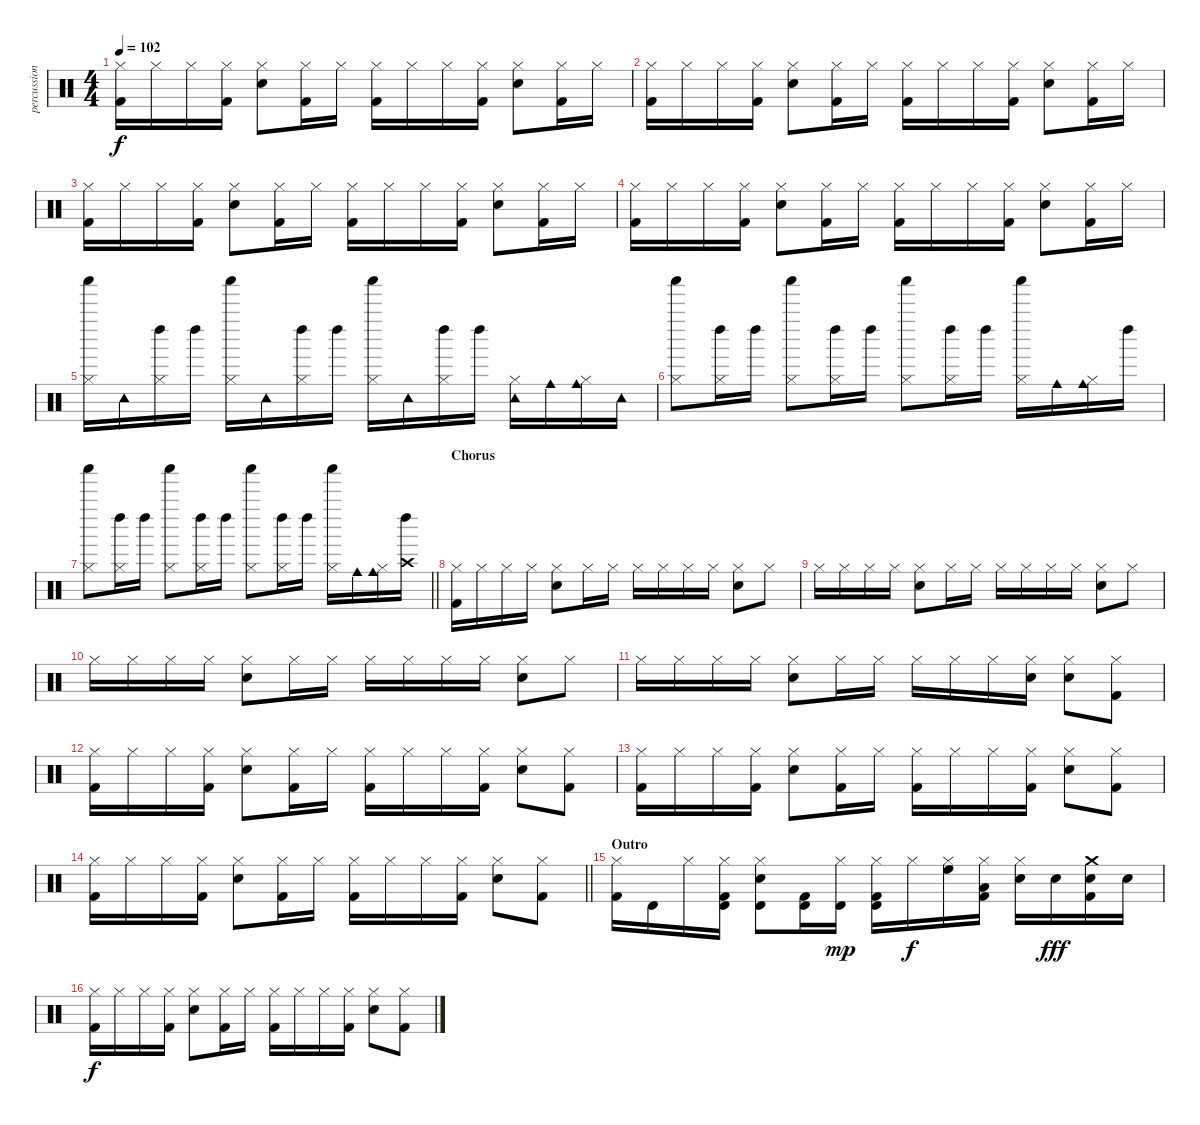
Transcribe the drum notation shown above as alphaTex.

\track ("percussion" "percussion") {instrument percussion}
\staff {score}
\articulation defaults
\ts (4 4)
\tempo 102
\clef neutral
\ks aminor
("Hi-Hat (closed)" "Kick (hit) 2").16{dy f} "Hi-Hat (closed)".16 "Hi-Hat (closed)".16 ("Hi-Hat (closed)" "Kick (hit) 2").16 ("Snare (hit) 2" "Hi-Hat (closed)").8 ("Hi-Hat (closed)" "Kick (hit) 2").16 "Hi-Hat (closed)".16 ("Hi-Hat (closed)" "Kick (hit) 2").16 "Hi-Hat (closed)".16 "Hi-Hat (closed)".16 ("Hi-Hat (closed)" "Kick (hit) 2").16 ("Snare (hit) 2" "Hi-Hat (closed)").8 ("Hi-Hat (closed)" "Kick (hit) 2").16 "Hi-Hat (closed)".16 |
("Hi-Hat (closed)" "Kick (hit) 2").16 "Hi-Hat (closed)".16 "Hi-Hat (closed)".16 ("Hi-Hat (closed)" "Kick (hit) 2").16 ("Snare (hit) 2" "Hi-Hat (closed)").8 ("Hi-Hat (closed)" "Kick (hit) 2").16 "Hi-Hat (closed)".16 ("Hi-Hat (closed)" "Kick (hit) 2").16 "Hi-Hat (closed)".16 "Hi-Hat (closed)".16 ("Hi-Hat (closed)" "Kick (hit) 2").16 ("Snare (hit) 2" "Hi-Hat (closed)").8 ("Hi-Hat (closed)" "Kick (hit) 2").16 "Hi-Hat (closed)".16 |
("Hi-Hat (closed)" "Kick (hit) 2").16 "Hi-Hat (closed)".16 "Hi-Hat (closed)".16 ("Hi-Hat (closed)" "Kick (hit) 2").16 ("Snare (hit) 2" "Hi-Hat (closed)").8 ("Hi-Hat (closed)" "Kick (hit) 2").16 "Hi-Hat (closed)".16 ("Hi-Hat (closed)" "Kick (hit) 2").16 "Hi-Hat (closed)".16 "Hi-Hat (closed)".16 ("Hi-Hat (closed)" "Kick (hit) 2").16 ("Snare (hit) 2" "Hi-Hat (closed)").8 ("Hi-Hat (closed)" "Kick (hit) 2").16 "Hi-Hat (closed)".16 |
("Hi-Hat (closed)" "Kick (hit) 2").16 "Hi-Hat (closed)".16 "Hi-Hat (closed)".16 ("Hi-Hat (closed)" "Kick (hit) 2").16 ("Snare (hit) 2" "Hi-Hat (closed)").8 ("Hi-Hat (closed)" "Kick (hit) 2").16 "Hi-Hat (closed)".16 ("Hi-Hat (closed)" "Kick (hit) 2").16 "Hi-Hat (closed)".16 "Hi-Hat (closed)".16 ("Hi-Hat (closed)" "Kick (hit) 2").16 ("Snare (hit) 2" "Hi-Hat (closed)").8 ("Hi-Hat (closed)" "Kick (hit) 2").16 "Hi-Hat (closed)".16 |
("Shaker (hit)" "Hi-Hat (closed)").16 "Tambourine (hit)".16 ("Left Maraca (hit)" "Hi-Hat (closed)").16 "Left Maraca (hit)".16 ("Shaker (hit)" "Hi-Hat (closed)").16 "Tambourine (hit)".16 ("Left Maraca (hit)" "Hi-Hat (closed)").16 "Left Maraca (hit)".16 ("Shaker (hit)" "Hi-Hat (closed)").16 "Tambourine (hit)".16 ("Left Maraca (hit)" "Hi-Hat (closed)").16 "Left Maraca (hit)".16 ("Tambourine (hit)" "Hi-Hat (closed)").16 "Cowbell medium (hit)".16 ("Cowbell medium (hit)" "Hi-Hat (closed)").16 "Tambourine (hit)".16 |
("Shaker (hit)" "Hi-Hat (closed)").8 ("Left Maraca (hit)" "Hi-Hat (closed)").16 "Left Maraca (hit)".16 ("Shaker (hit)" "Hi-Hat (closed)").8 ("Left Maraca (hit)" "Hi-Hat (closed)").16 "Left Maraca (hit)".16 ("Shaker (hit)" "Hi-Hat (closed)").8 ("Left Maraca (hit)" "Hi-Hat (closed)").16 "Left Maraca (hit)".16 ("Shaker (hit)" "Hi-Hat (closed)").16 "Cowbell medium (hit)".16 ("Cowbell medium (hit)" "Hi-Hat (closed)").16 "Left Maraca (hit)".16 |
\barLineRight lightlight
("Shaker (hit)" "Hi-Hat (closed)").8 ("Left Maraca (hit)" "Hi-Hat (closed)").16 "Left Maraca (hit)".16 ("Shaker (hit)" "Hi-Hat (closed)").8 ("Left Maraca (hit)" "Hi-Hat (closed)").16 "Left Maraca (hit)".16 ("Shaker (hit)" "Hi-Hat (closed)").8 ("Left Maraca (hit)" "Hi-Hat (closed)").16 "Left Maraca (hit)".16 ("Shaker (hit)" "Hi-Hat (closed)").16 "Cowbell medium (hit)".16 ("Cowbell medium (hit)" "Hi-Hat (closed)").16 ("Crash high (hit)" "Left Maraca (hit)").16 |
\section ("" "Chorus")
("Hi-Hat (closed)" "Kick (hit) 2").16 "Hi-Hat (closed)".16 "Hi-Hat (closed)".16 "Hi-Hat (closed)".16 ("Snare (hit) 2" "Hi-Hat (closed)").8 "Hi-Hat (closed)".16 "Hi-Hat (closed)".16 "Hi-Hat (closed)".16 "Hi-Hat (closed)".16 "Hi-Hat (closed)".16 "Hi-Hat (closed)".16 ("Snare (hit) 2" "Hi-Hat (closed)").8 "Hi-Hat (closed)".8 |
"Hi-Hat (closed)".16 "Hi-Hat (closed)".16 "Hi-Hat (closed)".16 "Hi-Hat (closed)".16 ("Snare (hit) 2" "Hi-Hat (closed)").8 "Hi-Hat (closed)".16 "Hi-Hat (closed)".16 "Hi-Hat (closed)".16 "Hi-Hat (closed)".16 "Hi-Hat (closed)".16 "Hi-Hat (closed)".16 ("Snare (hit) 2" "Hi-Hat (closed)").8 "Hi-Hat (closed)".8 |
"Hi-Hat (closed)".16 "Hi-Hat (closed)".16 "Hi-Hat (closed)".16 "Hi-Hat (closed)".16 ("Snare (hit) 2" "Hi-Hat (closed)").8 "Hi-Hat (closed)".16 "Hi-Hat (closed)".16 "Hi-Hat (closed)".16 "Hi-Hat (closed)".16 "Hi-Hat (closed)".16 "Hi-Hat (closed)".16 ("Snare (hit) 2" "Hi-Hat (closed)").8 "Hi-Hat (closed)".8 |
"Hi-Hat (closed)".16 "Hi-Hat (closed)".16 "Hi-Hat (closed)".16 "Hi-Hat (closed)".16 ("Snare (hit) 2" "Hi-Hat (closed)").8 "Hi-Hat (closed)".16 "Hi-Hat (closed)".16 "Hi-Hat (closed)".16 "Hi-Hat (closed)".16 "Hi-Hat (closed)".16 ("Snare (hit) 2" "Hi-Hat (closed)").16 ("Snare (hit) 2" "Hi-Hat (closed)").8 ("Hi-Hat (closed)" "Kick (hit) 2").8 |
("Hi-Hat (closed)" "Kick (hit) 2").16 "Hi-Hat (closed)".16 "Hi-Hat (closed)".16 ("Hi-Hat (closed)" "Kick (hit) 2").16 ("Snare (hit) 2" "Hi-Hat (closed)").8 ("Hi-Hat (closed)" "Kick (hit) 2").16 "Hi-Hat (closed)".16 ("Hi-Hat (closed)" "Kick (hit) 2").16 "Hi-Hat (closed)".16 "Hi-Hat (closed)".16 ("Hi-Hat (closed)" "Kick (hit) 2").16 ("Snare (hit) 2" "Hi-Hat (closed)").8 ("Hi-Hat (closed)" "Kick (hit) 2").8 |
("Hi-Hat (closed)" "Kick (hit) 2").16 "Hi-Hat (closed)".16 "Hi-Hat (closed)".16 ("Hi-Hat (closed)" "Kick (hit) 2").16 ("Snare (hit) 2" "Hi-Hat (closed)").8 ("Hi-Hat (closed)" "Kick (hit) 2").16 "Hi-Hat (closed)".16 ("Hi-Hat (closed)" "Kick (hit) 2").16 "Hi-Hat (closed)".16 "Hi-Hat (closed)".16 ("Hi-Hat (closed)" "Kick (hit) 2").16 ("Snare (hit) 2" "Hi-Hat (closed)").8 ("Hi-Hat (closed)" "Kick (hit) 2").8 |
\barLineRight lightlight
("Hi-Hat (closed)" "Kick (hit) 2").16 "Hi-Hat (closed)".16 "Hi-Hat (closed)".16 ("Hi-Hat (closed)" "Kick (hit) 2").16 ("Snare (hit) 2" "Hi-Hat (closed)").8 ("Hi-Hat (closed)" "Kick (hit) 2").16 "Hi-Hat (closed)".16 ("Hi-Hat (closed)" "Kick (hit) 2").16 "Hi-Hat (closed)".16 "Hi-Hat (closed)".16 ("Hi-Hat (closed)" "Kick (hit) 2").16 ("Snare (hit) 2" "Hi-Hat (closed)").8 ("Hi-Hat (closed)" "Kick (hit) 2").8 |
\section ("" "Outro")
("Hi-Hat (closed)" "Kick (hit) 2").16 "Timbale high (hit)".16 "Hi-Hat (closed)".16 ("Timbale high (hit)" "Hi-Hat (closed)" "Kick (hit) 2").16 ("Timbale high (hit)" "Snare (hit) 2" "Hi-Hat (closed)").8 ("Timbale high (hit)" "Kick (hit) 2").16 ("Timbale high (hit)" "Hi-Hat (closed)").16{dy mp} ("Timbale high (hit)" "Hi-Hat (closed)" "Kick (hit) 2").16 "Hi-Hat (closed)".16{dy f} ("High Floor Tom (hit)" "Hi-Hat (closed)").16 ("Low Tom (hit)" "Hi-Hat (closed)" "Kick (hit) 2").16 ("Snare (hit) 2" "Hi-Hat (closed)").16 "Snare (hit) 2".16{dy fff} ("Crash medium (hit)" "Snare (hit) 2" "Kick (hit) 2").16 "Snare (hit) 2".16 |
("Hi-Hat (closed)" "Kick (hit) 2").16{dy f} "Hi-Hat (closed)".16 "Hi-Hat (closed)".16 ("Hi-Hat (closed)" "Kick (hit) 2").16 ("Snare (hit) 2" "Hi-Hat (closed)").8 ("Hi-Hat (closed)" "Kick (hit) 2").16 "Hi-Hat (closed)".16 ("Hi-Hat (closed)" "Kick (hit) 2").16 "Hi-Hat (closed)".16 "Hi-Hat (closed)".16 ("Hi-Hat (closed)" "Kick (hit) 2").16 ("Snare (hit) 2" "Hi-Hat (closed)").8 ("Hi-Hat (closed)" "Kick (hit) 2").8
